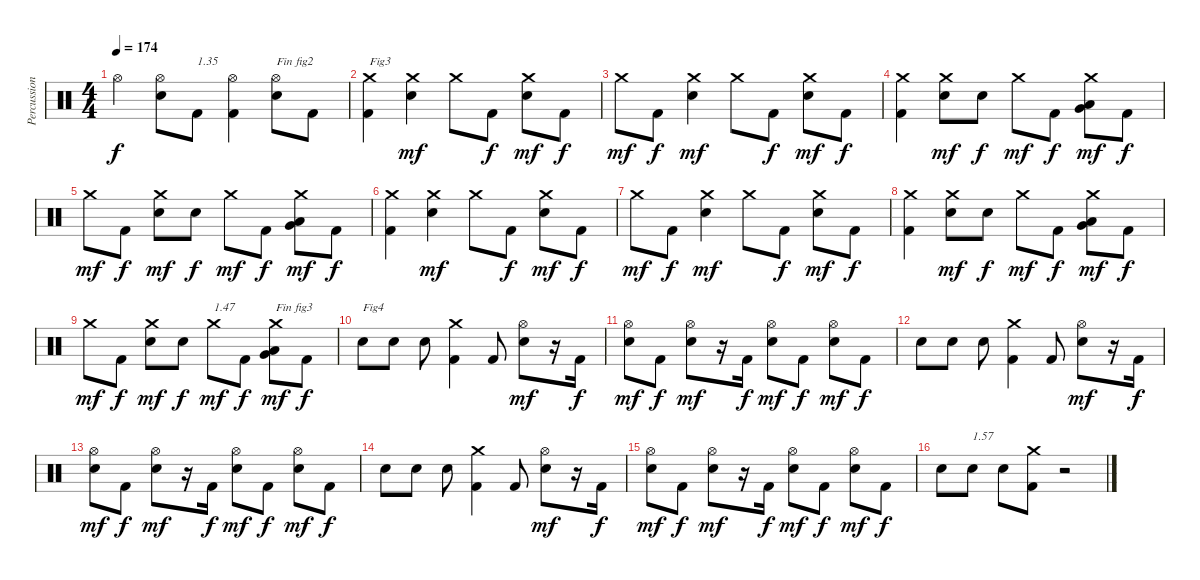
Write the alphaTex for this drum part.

\track ("Percussions" "Percussion") {instrument percussion}
\staff {score}
\articulation defaults
\ts (4 4)
\tempo 174
\clef neutral
\ks c "Hi-Hat (open)".4{dy f}
("Electric Snare (hit)" "Hi-Hat (open)").8 "Kick (hit) 2".8{txt "1.35"} ("Kick (hit) 2" "Hi-Hat (open)").4 ("Electric Snare (hit)" "Hi-Hat (open)").8{txt "Fin fig2"} "Kick (hit) 2".8 |
("Kick (hit) 2" "Crash medium (hit)").4{txt "Fig3"} ("Electric Snare (hit)" "Crash medium (hit)").4{dy mf} "Crash medium (hit)".8 "Kick (hit) 2".8{dy f} ("Electric Snare (hit)" "Crash medium (hit)").8{dy mf} "Kick (hit) 2".8{dy f} |
"Crash medium (hit)".8{dy mf} "Kick (hit) 2".8{dy f} ("Electric Snare (hit)" "Crash medium (hit)").4{dy mf} "Crash medium (hit)".8 "Kick (hit) 2".8{dy f} ("Electric Snare (hit)" "Crash medium (hit)").8{dy mf} "Kick (hit) 2".8{dy f} |
("Kick (hit) 2" "Crash medium (hit)").4 ("Electric Snare (hit)" "Crash medium (hit)").8{dy mf} "Electric Snare (hit)".8{dy f} "Crash medium (hit)".8{dy mf} "Kick (hit) 2".8{dy f} ("Very Low Tom (hit)" "Low Floor Tom (hit)" "Crash medium (hit)").8{dy mf} "Kick (hit) 2".8{dy f} |
"Crash medium (hit)".8{dy mf} "Kick (hit) 2".8{dy f} ("Electric Snare (hit)" "Crash medium (hit)").8{dy mf} "Electric Snare (hit)".8{dy f} "Crash medium (hit)".8{dy mf} "Kick (hit) 2".8{dy f} ("Low Tom (hit)" "Very Low Tom (hit)" "Crash medium (hit)").8{dy mf} "Kick (hit) 2".8{dy f} |
("Kick (hit) 2" "Crash medium (hit)").4 ("Electric Snare (hit)" "Crash medium (hit)").4{dy mf} "Crash medium (hit)".8 "Kick (hit) 2".8{dy f} ("Electric Snare (hit)" "Crash medium (hit)").8{dy mf} "Kick (hit) 2".8{dy f} |
"Crash medium (hit)".8{dy mf} "Kick (hit) 2".8{dy f} ("Electric Snare (hit)" "Crash medium (hit)").4{dy mf} "Crash medium (hit)".8 "Kick (hit) 2".8{dy f} ("Electric Snare (hit)" "Crash medium (hit)").8{dy mf} "Kick (hit) 2".8{dy f} |
("Kick (hit) 2" "Crash medium (hit)").4 ("Electric Snare (hit)" "Crash medium (hit)").8{dy mf} "Electric Snare (hit)".8{dy f} "Crash medium (hit)".8{dy mf} "Kick (hit) 2".8{dy f} ("Very Low Tom (hit)" "Low Floor Tom (hit)" "Crash medium (hit)").8{dy mf} "Kick (hit) 2".8{dy f} |
"Crash medium (hit)".8{dy mf} "Kick (hit) 2".8{dy f} ("Electric Snare (hit)" "Crash medium (hit)").8{dy mf} "Electric Snare (hit)".8{dy f} "Crash medium (hit)".8{txt "1.47" dy mf} "Kick (hit) 2".8{dy f} ("Low Tom (hit)" "Very Low Tom (hit)" "Crash medium (hit)").8{txt "Fin fig3" dy mf} "Kick (hit) 2".8{dy f} |
"Electric Snare (hit)".8{txt "Fig4"} "Electric Snare (hit)".8 "Electric Snare (hit)".8 ("Kick (hit) 2" "Crash medium (hit)").4 "Kick (hit) 2".8 ("Electric Snare (hit)" "Hi-Hat (open)").8{dy mf} r.16 "Kick (hit) 2".16{dy f} |
("Electric Snare (hit)" "Hi-Hat (open)").8{dy mf} "Kick (hit) 2".8{dy f} ("Electric Snare (hit)" "Hi-Hat (open)").8{dy mf} r.16 "Kick (hit) 2".16{dy f} ("Electric Snare (hit)" "Hi-Hat (open)").8{dy mf} "Kick (hit) 2".8{dy f} ("Electric Snare (hit)" "Hi-Hat (open)").8{dy mf} "Kick (hit) 2".8{dy f} |
"Electric Snare (hit)".8 "Electric Snare (hit)".8 "Electric Snare (hit)".8 ("Kick (hit) 2" "Crash medium (hit)").4 "Kick (hit) 2".8 ("Electric Snare (hit)" "Hi-Hat (open)").8{dy mf} r.16 "Kick (hit) 2".16{dy f} |
("Electric Snare (hit)" "Hi-Hat (open)").8{dy mf} "Kick (hit) 2".8{dy f} ("Electric Snare (hit)" "Hi-Hat (open)").8{dy mf} r.16 "Kick (hit) 2".16{dy f} ("Electric Snare (hit)" "Hi-Hat (open)").8{dy mf} "Kick (hit) 2".8{dy f} ("Electric Snare (hit)" "Hi-Hat (open)").8{dy mf} "Kick (hit) 2".8{dy f} |
"Electric Snare (hit)".8 "Electric Snare (hit)".8 "Electric Snare (hit)".8 ("Kick (hit) 2" "Crash medium (hit)").4 "Kick (hit) 2".8 ("Electric Snare (hit)" "Hi-Hat (open)").8{dy mf} r.16 "Kick (hit) 2".16{dy f} |
("Electric Snare (hit)" "Hi-Hat (open)").8{dy mf} "Kick (hit) 2".8{dy f} ("Electric Snare (hit)" "Hi-Hat (open)").8{dy mf} r.16 "Kick (hit) 2".16{dy f} ("Electric Snare (hit)" "Hi-Hat (open)").8{dy mf} "Kick (hit) 2".8{dy f} ("Electric Snare (hit)" "Hi-Hat (open)").8{dy mf} "Kick (hit) 2".8{dy f} |
"Electric Snare (hit)".8 "Electric Snare (hit)".8{txt "1.57"} "Electric Snare (hit)".8 ("Kick (hit) 2" "Crash medium (hit)").8 r.2
